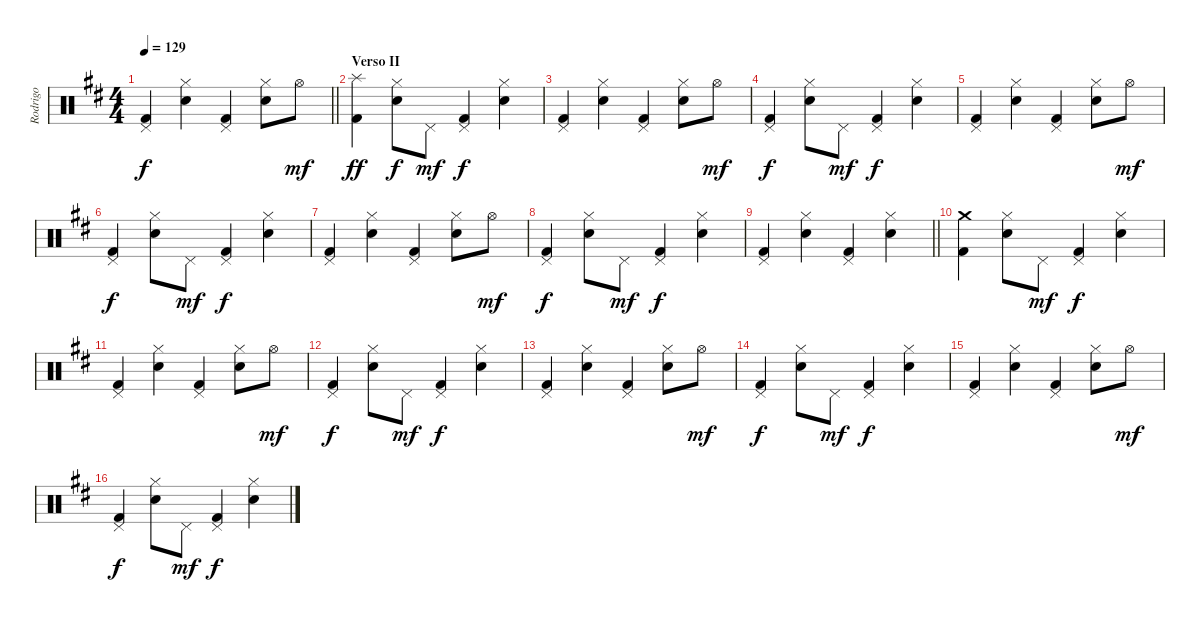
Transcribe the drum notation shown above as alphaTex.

\track ("Rodrigo " "Rodrigo ") {instrument percussion}
\staff {score}
\articulation defaults
\ts (4 4)
\tempo 129
\clef neutral
\barLineRight lightlight
\ks d
("Pedal Hi-Hat (hit)" "Kick (hit) 2").4{dy f} ("Hi-Hat (closed)" "Electric Snare (hit)").4 ("Pedal Hi-Hat (hit)" "Kick (hit) 2").4 ("Hi-Hat (closed)" "Electric Snare (hit)").8 "Hi-Hat (open)".8{dy mf} |
\section ("" "Verso II")
("Splash (hit)" "Kick (hit) 2").4{dy ff} ("Hi-Hat (closed)" "Electric Snare (hit)").8{dy f} "Pedal Hi-Hat (hit)".8{dy mf} ("Pedal Hi-Hat (hit)" "Kick (hit) 2").4{dy f} ("Hi-Hat (closed)" "Electric Snare (hit)").4 |
("Pedal Hi-Hat (hit)" "Kick (hit) 2").4 ("Hi-Hat (closed)" "Electric Snare (hit)").4 ("Pedal Hi-Hat (hit)" "Kick (hit) 2").4 ("Hi-Hat (closed)" "Electric Snare (hit)").8 "Hi-Hat (open)".8{dy mf} |
("Pedal Hi-Hat (hit)" "Kick (hit) 2").4{dy f} ("Hi-Hat (closed)" "Electric Snare (hit)").8 "Pedal Hi-Hat (hit)".8{dy mf} ("Pedal Hi-Hat (hit)" "Kick (hit) 2").4{dy f} ("Hi-Hat (closed)" "Electric Snare (hit)").4 |
("Pedal Hi-Hat (hit)" "Kick (hit) 2").4 ("Hi-Hat (closed)" "Electric Snare (hit)").4 ("Pedal Hi-Hat (hit)" "Kick (hit) 2").4 ("Hi-Hat (closed)" "Electric Snare (hit)").8 "Hi-Hat (open)".8{dy mf} |
("Pedal Hi-Hat (hit)" "Kick (hit) 2").4{dy f} ("Hi-Hat (closed)" "Electric Snare (hit)").8 "Pedal Hi-Hat (hit)".8{dy mf} ("Pedal Hi-Hat (hit)" "Kick (hit) 2").4{dy f} ("Hi-Hat (closed)" "Electric Snare (hit)").4 |
("Pedal Hi-Hat (hit)" "Kick (hit) 2").4 ("Hi-Hat (closed)" "Electric Snare (hit)").4 ("Pedal Hi-Hat (hit)" "Kick (hit) 2").4 ("Hi-Hat (closed)" "Electric Snare (hit)").8 "Hi-Hat (open)".8{dy mf} |
("Pedal Hi-Hat (hit)" "Kick (hit) 2").4{dy f} ("Hi-Hat (closed)" "Electric Snare (hit)").8 "Pedal Hi-Hat (hit)".8{dy mf} ("Pedal Hi-Hat (hit)" "Kick (hit) 2").4{dy f} ("Hi-Hat (closed)" "Electric Snare (hit)").4 |
\barLineRight lightlight
("Pedal Hi-Hat (hit)" "Kick (hit) 2").4 ("Hi-Hat (closed)" "Electric Snare (hit)").4 ("Pedal Hi-Hat (hit)" "Kick (hit) 2").4 ("Hi-Hat (closed)" "Electric Snare (hit)").4 |
("Crash medium (hit)" "Kick (hit) 2").4 ("Hi-Hat (closed)" "Electric Snare (hit)").8 "Pedal Hi-Hat (hit)".8{dy mf} ("Pedal Hi-Hat (hit)" "Kick (hit) 2").4{dy f} ("Hi-Hat (closed)" "Electric Snare (hit)").4 |
("Pedal Hi-Hat (hit)" "Kick (hit) 2").4 ("Hi-Hat (closed)" "Electric Snare (hit)").4 ("Pedal Hi-Hat (hit)" "Kick (hit) 2").4 ("Hi-Hat (closed)" "Electric Snare (hit)").8 "Hi-Hat (open)".8{dy mf} |
("Pedal Hi-Hat (hit)" "Kick (hit) 2").4{dy f} ("Hi-Hat (closed)" "Electric Snare (hit)").8 "Pedal Hi-Hat (hit)".8{dy mf} ("Pedal Hi-Hat (hit)" "Kick (hit) 2").4{dy f} ("Hi-Hat (closed)" "Electric Snare (hit)").4 |
("Pedal Hi-Hat (hit)" "Kick (hit) 2").4 ("Hi-Hat (closed)" "Electric Snare (hit)").4 ("Pedal Hi-Hat (hit)" "Kick (hit) 2").4 ("Hi-Hat (closed)" "Electric Snare (hit)").8 "Hi-Hat (open)".8{dy mf} |
("Pedal Hi-Hat (hit)" "Kick (hit) 2").4{dy f} ("Hi-Hat (closed)" "Electric Snare (hit)").8 "Pedal Hi-Hat (hit)".8{dy mf} ("Pedal Hi-Hat (hit)" "Kick (hit) 2").4{dy f} ("Hi-Hat (closed)" "Electric Snare (hit)").4 |
("Pedal Hi-Hat (hit)" "Kick (hit) 2").4 ("Hi-Hat (closed)" "Electric Snare (hit)").4 ("Pedal Hi-Hat (hit)" "Kick (hit) 2").4 ("Hi-Hat (closed)" "Electric Snare (hit)").8 "Hi-Hat (open)".8{dy mf} |
("Pedal Hi-Hat (hit)" "Kick (hit) 2").4{dy f} ("Hi-Hat (closed)" "Electric Snare (hit)").8 "Pedal Hi-Hat (hit)".8{dy mf} ("Pedal Hi-Hat (hit)" "Kick (hit) 2").4{dy f} ("Hi-Hat (closed)" "Electric Snare (hit)").4
